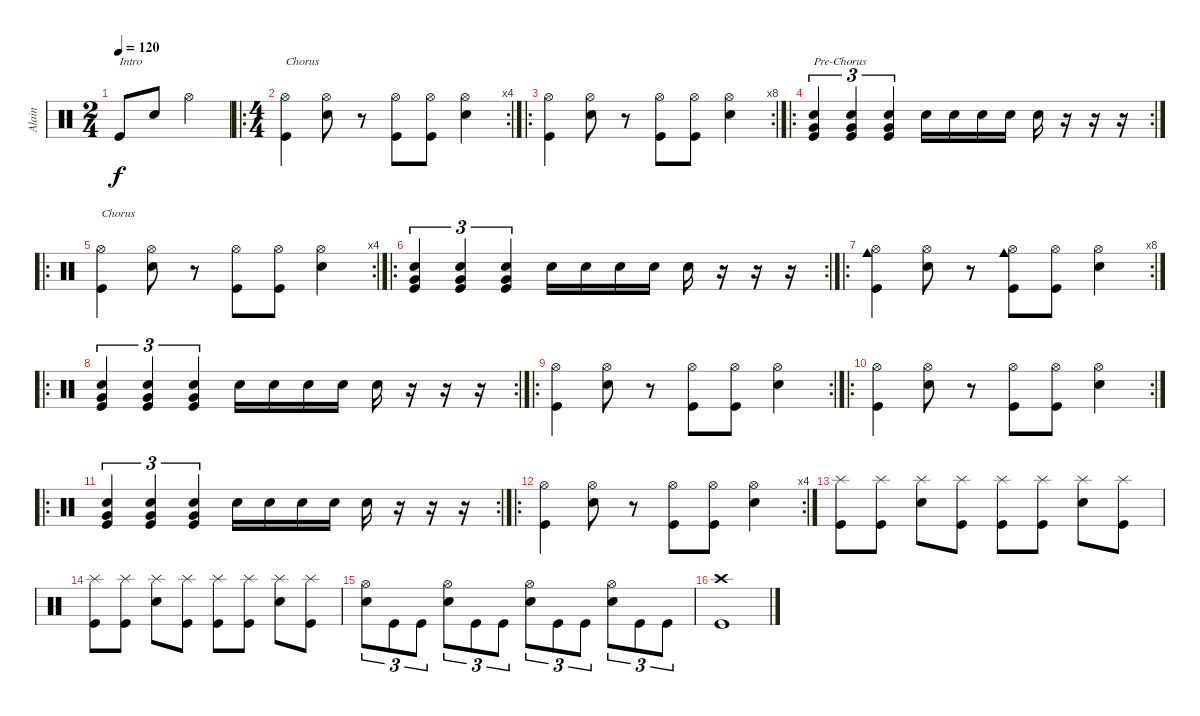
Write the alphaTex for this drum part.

\track ("Alain" "Alain") {instrument percussion}
\staff {score}
\articulation defaults
\ts (2 4)
\tempo 120
\clef neutral
\ks c "Kick (hit)".8{txt "Intro" dy f} "Electric Snare (hit)".8 "Hi-Hat (open)".4
|
\ro
\rc 4
\ts (4 4)
("Hi-Hat (open)" "Kick (hit)").4{txt "Chorus"} ("Hi-Hat (open)" "Electric Snare (hit)").8 r.8 ("Hi-Hat (open)" "Kick (hit)").8 ("Hi-Hat (open)" "Kick (hit)").8 ("Hi-Hat (open)" "Electric Snare (hit)").4 |
\ro
\rc 8
("Hi-Hat (open)" "Kick (hit)").4 ("Hi-Hat (open)" "Electric Snare (hit)").8 r.8 ("Hi-Hat (open)" "Kick (hit)").8 ("Hi-Hat (open)" "Kick (hit)").8 ("Hi-Hat (open)" "Electric Snare (hit)").4 |
\ro
\rc 2
("Very Low Tom (hit)" "Electric Snare (hit)" "Kick (hit)").4{tu (3 2) txt "Pre-Chorus"} ("Very Low Tom (hit)" "Electric Snare (hit)" "Kick (hit)").4{tu (3 2)} ("Very Low Tom (hit)" "Electric Snare (hit)" "Kick (hit)").4{tu (3 2)} "Electric Snare (hit)".16 "Electric Snare (hit)".16 "Electric Snare (hit)".16 "Electric Snare (hit)".16 "Electric Snare (hit)".16 r.16 r.16 r.16 |
\ro
\rc 4
("Hi-Hat (open)" "Kick (hit)").4{txt "Chorus"} ("Hi-Hat (open)" "Electric Snare (hit)").8 r.8 ("Hi-Hat (open)" "Kick (hit)").8 ("Hi-Hat (open)" "Kick (hit)").8 ("Hi-Hat (open)" "Electric Snare (hit)").4 |
\ro
\rc 2
("Very Low Tom (hit)" "Electric Snare (hit)" "Kick (hit)").4{tu (3 2)} ("Very Low Tom (hit)" "Electric Snare (hit)" "Kick (hit)").4{tu (3 2)} ("Very Low Tom (hit)" "Electric Snare (hit)" "Kick (hit)").4{tu (3 2)} "Electric Snare (hit)".16 "Electric Snare (hit)".16 "Electric Snare (hit)".16 "Electric Snare (hit)".16 "Electric Snare (hit)".16 r.16 r.16 r.16 |
\ro
\rc 8
("Hi-Hat (open)" "Cowbell medium (hit)" "Kick (hit)").4 ("Hi-Hat (open)" "Electric Snare (hit)").8 r.8 ("Hi-Hat (open)" "Cowbell medium (hit)" "Kick (hit)").8 ("Hi-Hat (open)" "Kick (hit)").8 ("Hi-Hat (open)" "Electric Snare (hit)").4 |
\ro
\rc 2
("Very Low Tom (hit)" "Electric Snare (hit)" "Kick (hit)").4{tu (3 2)} ("Very Low Tom (hit)" "Electric Snare (hit)" "Kick (hit)").4{tu (3 2)} ("Very Low Tom (hit)" "Electric Snare (hit)" "Kick (hit)").4{tu (3 2)} "Electric Snare (hit)".16 "Electric Snare (hit)".16 "Electric Snare (hit)".16 "Electric Snare (hit)".16 "Electric Snare (hit)".16 r.16 r.16 r.16 |
\ro
\rc 2
("Hi-Hat (open)" "Kick (hit)").4 ("Hi-Hat (open)" "Electric Snare (hit)").8 r.8 ("Hi-Hat (open)" "Kick (hit)").8 ("Hi-Hat (open)" "Kick (hit)").8 ("Hi-Hat (open)" "Electric Snare (hit)").4 |
\ro
\rc 2
("Hi-Hat (open)" "Kick (hit)").4 ("Hi-Hat (open)" "Electric Snare (hit)").8 r.8 ("Hi-Hat (open)" "Kick (hit)").8 ("Hi-Hat (open)" "Kick (hit)").8 ("Hi-Hat (open)" "Electric Snare (hit)").4 |
\ro
\rc 2
("Very Low Tom (hit)" "Electric Snare (hit)" "Kick (hit)").4{tu (3 2)} ("Very Low Tom (hit)" "Electric Snare (hit)" "Kick (hit)").4{tu (3 2)} ("Very Low Tom (hit)" "Electric Snare (hit)" "Kick (hit)").4{tu (3 2)} "Electric Snare (hit)".16 "Electric Snare (hit)".16 "Electric Snare (hit)".16 "Electric Snare (hit)".16 "Electric Snare (hit)".16 r.16 r.16 r.16 |
\ro
\rc 4
("Hi-Hat (open)" "Kick (hit)").4 ("Hi-Hat (open)" "Electric Snare (hit)").8 r.8 ("Hi-Hat (open)" "Kick (hit)").8 ("Hi-Hat (open)" "Kick (hit)").8 ("Hi-Hat (open)" "Electric Snare (hit)").4 |
("Splash (hit)" "Kick (hit)").8 ("Splash (hit)" "Kick (hit)").8 ("Splash (hit)" "Electric Snare (hit)").8 ("Splash (hit)" "Kick (hit)").8 ("Splash (hit)" "Kick (hit)").8 ("Splash (hit)" "Kick (hit)").8 ("Splash (hit)" "Electric Snare (hit)").8 ("Splash (hit)" "Kick (hit)").8 |
("Splash (hit)" "Kick (hit)").8 ("Splash (hit)" "Kick (hit)").8 ("Splash (hit)" "Electric Snare (hit)").8 ("Splash (hit)" "Kick (hit)").8 ("Splash (hit)" "Kick (hit)").8 ("Splash (hit)" "Kick (hit)").8 ("Splash (hit)" "Electric Snare (hit)").8 ("Splash (hit)" "Kick (hit)").8 |
("Hi-Hat (open)" "Electric Snare (hit)").8{tu (3 2)} "Kick (hit)".8{tu (3 2)} "Kick (hit)".8{tu (3 2)} ("Hi-Hat (open)" "Electric Snare (hit)").8{tu (3 2)} "Kick (hit)".8{tu (3 2)} "Kick (hit)".8{tu (3 2)} ("Hi-Hat (open)" "Electric Snare (hit)").8{tu (3 2)} "Kick (hit)".8{tu (3 2)} "Kick (hit)".8{tu (3 2)} ("Hi-Hat (open)" "Electric Snare (hit)").8{tu (3 2)} "Kick (hit)".8{tu (3 2)} "Kick (hit)".8{tu (3 2)} |
("Crash high (hit)" "Kick (hit)").1
